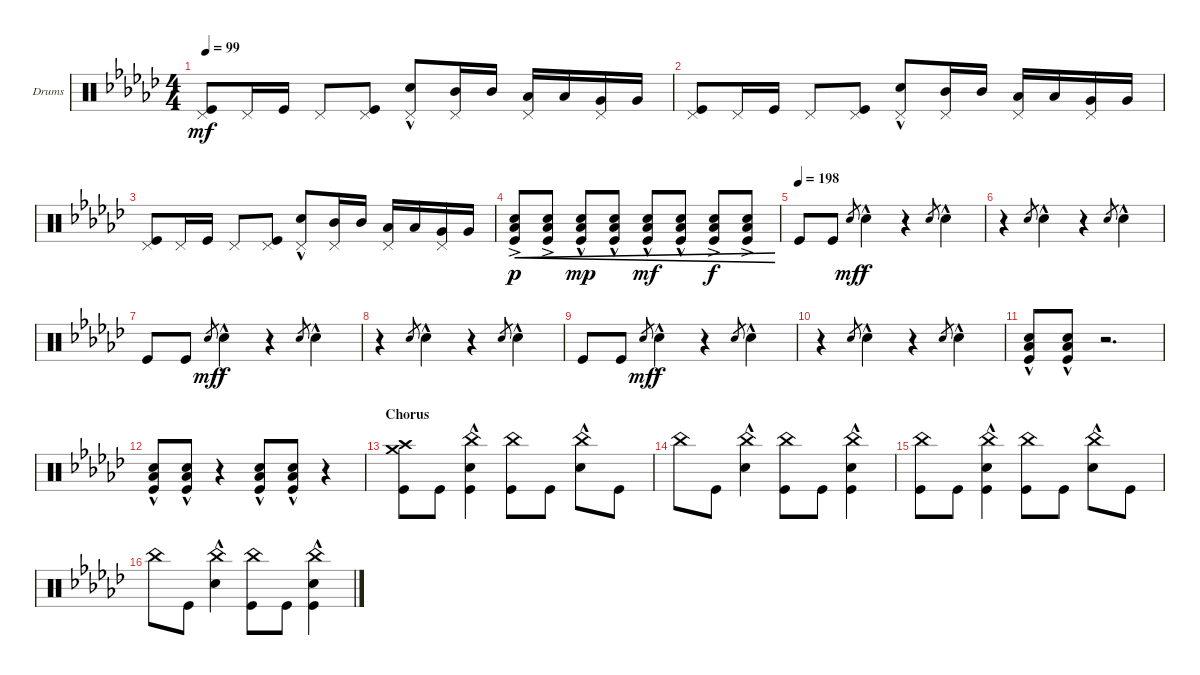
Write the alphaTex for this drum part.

\bracketExtendMode groupsimilarinstruments
\firstSystemTrackNameOrientation horizontal
\otherSystemsTrackNameOrientation horizontal
\track ("Drumkit" "Drums") {instrument percussion}
\staff {score}
\articulation defaults
\ts (4 4)
\tempo 99
\clef neutral
\ks ebminor
("Pedal Hi-Hat (hit)" "Kick (hit)").8{dy mf} "Pedal Hi-Hat (hit)".16 "Kick (hit)".16 "Pedal Hi-Hat (hit)".8 ("Kick (hit)" "Pedal Hi-Hat (hit)").8 ("Pedal Hi-Hat (hit)" "Snare (hit) 2"{hac}).8 ("Pedal Hi-Hat (hit)" "Mid Tom (hit)").16 "Mid Tom (hit)".16 ("Low Tom (hit)" "Pedal Hi-Hat (hit)").16 "Low Tom (hit)".16 ("Very Low Tom (hit)" "Pedal Hi-Hat (hit)").16 "Very Low Tom (hit)".16 |
("Pedal Hi-Hat (hit)" "Kick (hit)").8 "Pedal Hi-Hat (hit)".16 "Kick (hit)".16 "Pedal Hi-Hat (hit)".8 ("Kick (hit)" "Pedal Hi-Hat (hit)").8 ("Pedal Hi-Hat (hit)" "Snare (hit) 2"{hac}).8 ("Pedal Hi-Hat (hit)" "Mid Tom (hit)").16 "Mid Tom (hit)".16 ("Low Tom (hit)" "Pedal Hi-Hat (hit)").16 "Low Tom (hit)".16 ("Very Low Tom (hit)" "Pedal Hi-Hat (hit)").16 "Very Low Tom (hit)".16 |
("Pedal Hi-Hat (hit)" "Kick (hit)").8 "Pedal Hi-Hat (hit)".16 "Kick (hit)".16 "Pedal Hi-Hat (hit)".8 ("Kick (hit)" "Pedal Hi-Hat (hit)").8 ("Pedal Hi-Hat (hit)" "Snare (hit) 2"{hac}).8 ("Pedal Hi-Hat (hit)" "Mid Tom (hit)").16 "Mid Tom (hit)".16 ("Low Tom (hit)" "Pedal Hi-Hat (hit)").16 "Low Tom (hit)".16 ("Very Low Tom (hit)" "Pedal Hi-Hat (hit)").16 "Very Low Tom (hit)".16 |
("Kick (hit)" "Snare (hit) 2"{ac} "Low Tom (hit)"{ac}).8{cre dy p} ("Kick (hit)" "Snare (hit) 2"{ac} "Low Tom (hit)"{ac}).8{cre} ("Kick (hit)" "Snare (hit) 2"{hac} "Low Tom (hit)"{hac}).8{cre dy mp} ("Kick (hit)" "Snare (hit) 2"{hac} "Low Tom (hit)"{hac}).8{cre} ("Kick (hit)" "Snare (hit) 2"{hac} "Low Tom (hit)"{hac}).8{cre dy mf} ("Kick (hit)" "Snare (hit) 2"{hac} "Low Tom (hit)"{hac}).8{cre} ("Kick (hit)" "Snare (hit) 2"{ac} "Low Tom (hit)"{ac}).8{cre dy f} ("Kick (hit)" "Snare (hit) 2"{ac} "Low Tom (hit)"{ac}).8{cre} |
\tempo (198)
"Kick (hit)".8 "Kick (hit)".8 "Snare (hit) 2".8{gr dy mf} "Snare (hit) 2"{hac}.4{dy f} r.4 "Snare (hit) 2".8{gr} "Snare (hit) 2"{hac}.4 |
r.4 "Snare (hit) 2".8{gr} "Snare (hit) 2"{hac}.4 r.4 "Snare (hit) 2".8{gr} "Snare (hit) 2"{hac}.4 |
"Kick (hit)".8 "Kick (hit)".8 "Snare (hit) 2".8{gr dy mf} "Snare (hit) 2"{hac}.4{dy f} r.4 "Snare (hit) 2".8{gr} "Snare (hit) 2"{hac}.4 |
r.4 "Snare (hit) 2".8{gr} "Snare (hit) 2"{hac}.4 r.4 "Snare (hit) 2".8{gr} "Snare (hit) 2"{hac}.4 |
"Kick (hit)".8 "Kick (hit)".8 "Snare (hit) 2".8{gr dy mf} "Snare (hit) 2"{hac}.4{dy f} r.4 "Snare (hit) 2".8{gr} "Snare (hit) 2"{hac}.4 |
r.4 "Snare (hit) 2".8{gr} "Snare (hit) 2"{hac}.4 r.4 "Snare (hit) 2".8{gr} "Snare (hit) 2"{hac}.4 |
("Kick (hit)" "Low Tom (hit)"{hac} "Snare (hit) 2"{hac}).8 ("Kick (hit)" "Low Tom (hit)"{hac} "Snare (hit) 2"{hac}).8 r.2{d} |
("Kick (hit)" "Low Tom (hit)"{hac} "Snare (hit) 2"{hac}).8 ("Kick (hit)" "Low Tom (hit)"{hac} "Snare (hit) 2"{hac}).8 r.4 ("Kick (hit)" "Low Tom (hit)"{hac} "Snare (hit) 2"{hac}).8 ("Kick (hit)" "Low Tom (hit)"{hac} "Snare (hit) 2"{hac}).8 r.4 |
\section ("" "Chorus")
("Kick (hit)" "Crash medium (hit)" "Crash high (hit)").8 "Kick (hit)".8 ("Kick (hit)" "Snare (hit) 2"{hac} "China (hit)").4 ("Kick (hit)" "China (hit)").8 "Kick (hit)".8 ("Snare (hit) 2"{hac} "China (hit)").8 "Kick (hit)".8 |
"China (hit)".8 "Kick (hit)".8 ("Snare (hit) 2"{hac} "China (hit)").4 ("Kick (hit)" "China (hit)").8 "Kick (hit)".8 ("Kick (hit)" "China (hit)" "Snare (hit) 2"{hac}).4 |
("Kick (hit)" "China (hit)").8 "Kick (hit)".8 ("Kick (hit)" "Snare (hit) 2"{hac} "China (hit)").4 ("Kick (hit)" "China (hit)").8 "Kick (hit)".8 ("Snare (hit) 2"{hac} "China (hit)").8 "Kick (hit)".8 |
"China (hit)".8 "Kick (hit)".8 ("Snare (hit) 2"{hac} "China (hit)").4 ("Kick (hit)" "China (hit)").8 "Kick (hit)".8 ("Kick (hit)" "China (hit)" "Snare (hit) 2"{hac}).4
